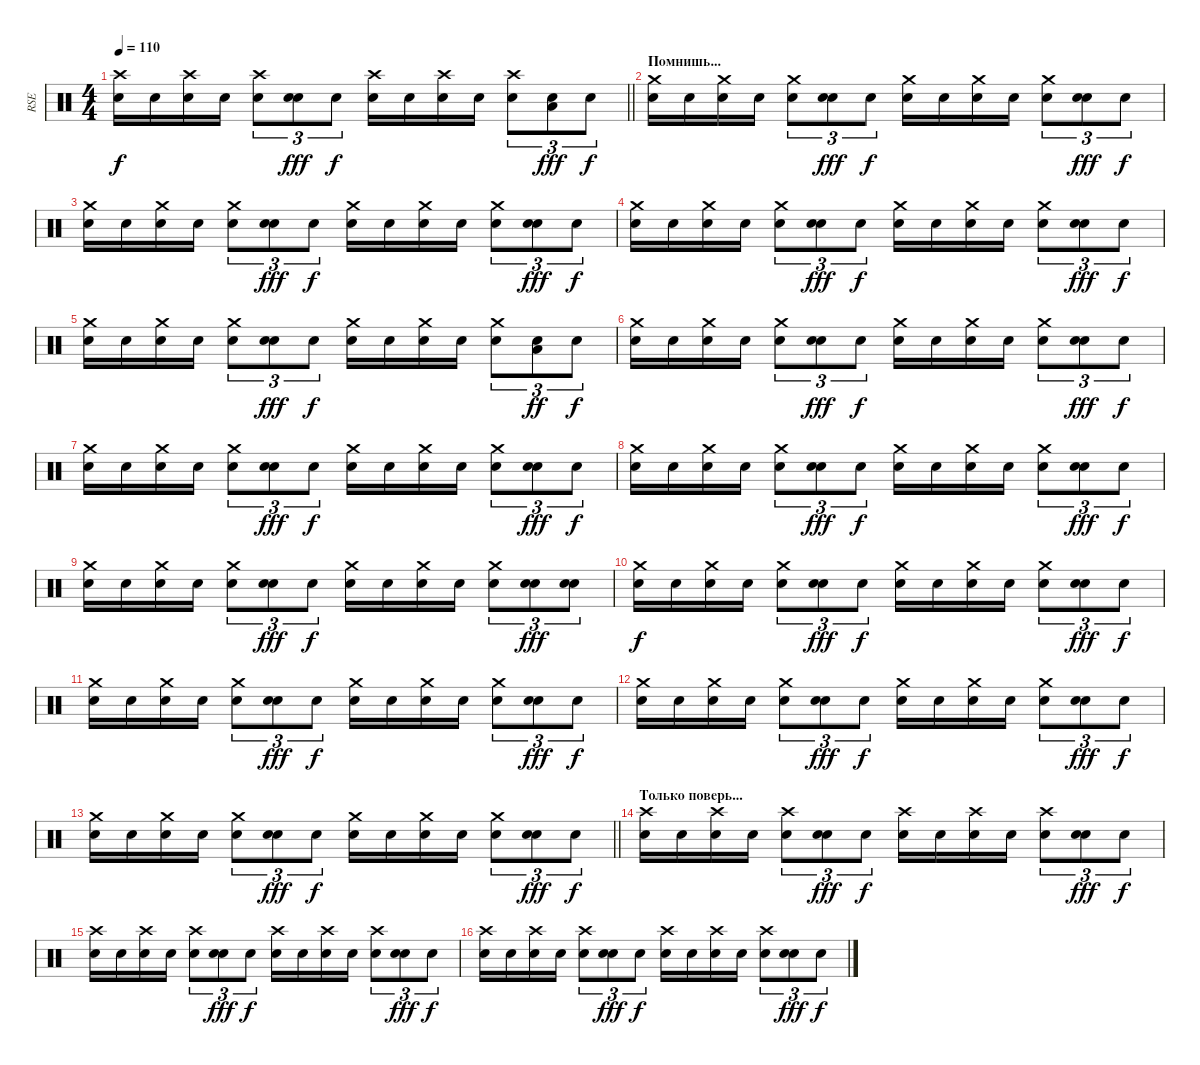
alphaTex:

\track ("RSE" "RSE") {instrument percussion}
\staff
\articulation defaults
\ts (4 4)
\tempo 110
\clef neutral
\barLineRight lightlight
\ks c
("Crash high (hit)" "Snare (hit)").16{dy f} "Snare (hit)".16 ("Crash high (hit)" "Snare (hit)").16 "Snare (hit)".16 ("Crash high (hit)" "Snare (hit)").8{tu (3 2)} ("Electric Snare (hit)" "Snare (hit)").8{tu (3 2) dy fff} "Snare (hit)".8{tu (3 2) dy f} ("Crash high (hit)" "Snare (hit)").16 "Snare (hit)".16 ("Crash high (hit)" "Snare (hit)").16 "Snare (hit)".16 ("Crash high (hit)" "Snare (hit)").8{tu (3 2)} ("Low Floor Tom (hit)" "Snare (hit)").8{tu (3 2) dy fff} "Snare (hit)".8{tu (3 2) dy f} |
\section ("" "Помнишь...")
("Crash medium (hit)" "Snare (hit)").16 "Snare (hit)".16 ("Crash medium (hit)" "Snare (hit)").16 "Snare (hit)".16 ("Crash medium (hit)" "Snare (hit)").8{tu (3 2)} ("Electric Snare (hit)" "Snare (hit)").8{tu (3 2) dy fff} "Snare (hit)".8{tu (3 2) dy f} ("Crash medium (hit)" "Snare (hit)").16 "Snare (hit)".16 ("Crash medium (hit)" "Snare (hit)").16 "Snare (hit)".16 ("Crash medium (hit)" "Snare (hit)").8{tu (3 2)} ("Electric Snare (hit)" "Snare (hit)").8{tu (3 2) dy fff} "Snare (hit)".8{tu (3 2) dy f} |
("Crash medium (hit)" "Snare (hit)").16 "Snare (hit)".16 ("Crash medium (hit)" "Snare (hit)").16 "Snare (hit)".16 ("Crash medium (hit)" "Snare (hit)").8{tu (3 2)} ("Electric Snare (hit)" "Snare (hit)").8{tu (3 2) dy fff} "Snare (hit)".8{tu (3 2) dy f} ("Crash medium (hit)" "Snare (hit)").16 "Snare (hit)".16 ("Crash medium (hit)" "Snare (hit)").16 "Snare (hit)".16 ("Crash medium (hit)" "Snare (hit)").8{tu (3 2)} ("Electric Snare (hit)" "Snare (hit)").8{tu (3 2) dy fff} "Snare (hit)".8{tu (3 2) dy f} |
("Crash medium (hit)" "Snare (hit)").16 "Snare (hit)".16 ("Crash medium (hit)" "Snare (hit)").16 "Snare (hit)".16 ("Crash medium (hit)" "Snare (hit)").8{tu (3 2)} ("Electric Snare (hit)" "Snare (hit)").8{tu (3 2) dy fff} "Snare (hit)".8{tu (3 2) dy f} ("Crash medium (hit)" "Snare (hit)").16 "Snare (hit)".16 ("Crash medium (hit)" "Snare (hit)").16 "Snare (hit)".16 ("Crash medium (hit)" "Snare (hit)").8{tu (3 2)} ("Electric Snare (hit)" "Snare (hit)").8{tu (3 2) dy fff} "Snare (hit)".8{tu (3 2) dy f} |
("Crash medium (hit)" "Snare (hit)").16 "Snare (hit)".16 ("Crash medium (hit)" "Snare (hit)").16 "Snare (hit)".16 ("Crash medium (hit)" "Snare (hit)").8{tu (3 2)} ("Electric Snare (hit)" "Snare (hit)").8{tu (3 2) dy fff} "Snare (hit)".8{tu (3 2) dy f} ("Crash medium (hit)" "Snare (hit)").16 "Snare (hit)".16 ("Crash medium (hit)" "Snare (hit)").16 "Snare (hit)".16 ("Crash medium (hit)" "Snare (hit)").8{tu (3 2)} ("Low Floor Tom (hit)" "Snare (hit)").8{tu (3 2) dy ff} "Snare (hit)".8{tu (3 2) dy f} |
("Crash medium (hit)" "Snare (hit)").16 "Snare (hit)".16 ("Crash medium (hit)" "Snare (hit)").16 "Snare (hit)".16 ("Crash medium (hit)" "Snare (hit)").8{tu (3 2)} ("Electric Snare (hit)" "Snare (hit)").8{tu (3 2) dy fff} "Snare (hit)".8{tu (3 2) dy f} ("Crash medium (hit)" "Snare (hit)").16 "Snare (hit)".16 ("Crash medium (hit)" "Snare (hit)").16 "Snare (hit)".16 ("Crash medium (hit)" "Snare (hit)").8{tu (3 2)} ("Electric Snare (hit)" "Snare (hit)").8{tu (3 2) dy fff} "Snare (hit)".8{tu (3 2) dy f} |
("Crash medium (hit)" "Snare (hit)").16 "Snare (hit)".16 ("Crash medium (hit)" "Snare (hit)").16 "Snare (hit)".16 ("Crash medium (hit)" "Snare (hit)").8{tu (3 2)} ("Electric Snare (hit)" "Snare (hit)").8{tu (3 2) dy fff} "Snare (hit)".8{tu (3 2) dy f} ("Crash medium (hit)" "Snare (hit)").16 "Snare (hit)".16 ("Crash medium (hit)" "Snare (hit)").16 "Snare (hit)".16 ("Crash medium (hit)" "Snare (hit)").8{tu (3 2)} ("Electric Snare (hit)" "Snare (hit)").8{tu (3 2) dy fff} "Snare (hit)".8{tu (3 2) dy f} |
("Crash medium (hit)" "Snare (hit)").16 "Snare (hit)".16 ("Crash medium (hit)" "Snare (hit)").16 "Snare (hit)".16 ("Crash medium (hit)" "Snare (hit)").8{tu (3 2)} ("Electric Snare (hit)" "Snare (hit)").8{tu (3 2) dy fff} "Snare (hit)".8{tu (3 2) dy f} ("Crash medium (hit)" "Snare (hit)").16 "Snare (hit)".16 ("Crash medium (hit)" "Snare (hit)").16 "Snare (hit)".16 ("Crash medium (hit)" "Snare (hit)").8{tu (3 2)} ("Electric Snare (hit)" "Snare (hit)").8{tu (3 2) dy fff} "Snare (hit)".8{tu (3 2) dy f} |
("Crash medium (hit)" "Snare (hit)").16 "Snare (hit)".16 ("Crash medium (hit)" "Snare (hit)").16 "Snare (hit)".16 ("Crash medium (hit)" "Snare (hit)").8{tu (3 2)} ("Electric Snare (hit)" "Snare (hit)").8{tu (3 2) dy fff} "Snare (hit)".8{tu (3 2) dy f} ("Crash medium (hit)" "Snare (hit)").16 "Snare (hit)".16 ("Crash medium (hit)" "Snare (hit)").16 "Snare (hit)".16 ("Crash medium (hit)" "Snare (hit)").8{tu (3 2)} ("Electric Snare (hit)" "Snare (hit)").8{tu (3 2) dy fff} ("Electric Snare (hit)" "Snare (hit)").8{tu (3 2)} |
("Crash medium (hit)" "Snare (hit)").16{dy f} "Snare (hit)".16 ("Crash medium (hit)" "Snare (hit)").16 "Snare (hit)".16 ("Crash medium (hit)" "Snare (hit)").8{tu (3 2)} ("Electric Snare (hit)" "Snare (hit)").8{tu (3 2) dy fff} "Snare (hit)".8{tu (3 2) dy f} ("Crash medium (hit)" "Snare (hit)").16 "Snare (hit)".16 ("Crash medium (hit)" "Snare (hit)").16 "Snare (hit)".16 ("Crash medium (hit)" "Snare (hit)").8{tu (3 2)} ("Electric Snare (hit)" "Snare (hit)").8{tu (3 2) dy fff} "Snare (hit)".8{tu (3 2) dy f} |
("Crash medium (hit)" "Snare (hit)").16 "Snare (hit)".16 ("Crash medium (hit)" "Snare (hit)").16 "Snare (hit)".16 ("Crash medium (hit)" "Snare (hit)").8{tu (3 2)} ("Electric Snare (hit)" "Snare (hit)").8{tu (3 2) dy fff} "Snare (hit)".8{tu (3 2) dy f} ("Crash medium (hit)" "Snare (hit)").16 "Snare (hit)".16 ("Crash medium (hit)" "Snare (hit)").16 "Snare (hit)".16 ("Crash medium (hit)" "Snare (hit)").8{tu (3 2)} ("Electric Snare (hit)" "Snare (hit)").8{tu (3 2) dy fff} "Snare (hit)".8{tu (3 2) dy f} |
("Crash medium (hit)" "Snare (hit)").16 "Snare (hit)".16 ("Crash medium (hit)" "Snare (hit)").16 "Snare (hit)".16 ("Crash medium (hit)" "Snare (hit)").8{tu (3 2)} ("Electric Snare (hit)" "Snare (hit)").8{tu (3 2) dy fff} "Snare (hit)".8{tu (3 2) dy f} ("Crash medium (hit)" "Snare (hit)").16 "Snare (hit)".16 ("Crash medium (hit)" "Snare (hit)").16 "Snare (hit)".16 ("Crash medium (hit)" "Snare (hit)").8{tu (3 2)} ("Electric Snare (hit)" "Snare (hit)").8{tu (3 2) dy fff} "Snare (hit)".8{tu (3 2) dy f} |
\barLineRight lightlight
("Crash medium (hit)" "Snare (hit)").16 "Snare (hit)".16 ("Crash medium (hit)" "Snare (hit)").16 "Snare (hit)".16 ("Crash medium (hit)" "Snare (hit)").8{tu (3 2)} ("Electric Snare (hit)" "Snare (hit)").8{tu (3 2) dy fff} "Snare (hit)".8{tu (3 2) dy f} ("Crash medium (hit)" "Snare (hit)").16 "Snare (hit)".16 ("Crash medium (hit)" "Snare (hit)").16 "Snare (hit)".16 ("Crash medium (hit)" "Snare (hit)").8{tu (3 2)} ("Electric Snare (hit)" "Snare (hit)").8{tu (3 2) dy fff} "Snare (hit)".8{tu (3 2) dy f} |
\section ("" "Только поверь...")
("Crash high (hit)" "Snare (hit)").16 "Snare (hit)".16 ("Crash high (hit)" "Snare (hit)").16 "Snare (hit)".16 ("Crash high (hit)" "Snare (hit)").8{tu (3 2)} ("Electric Snare (hit)" "Snare (hit)").8{tu (3 2) dy fff} "Snare (hit)".8{tu (3 2) dy f} ("Crash high (hit)" "Snare (hit)").16 "Snare (hit)".16 ("Crash high (hit)" "Snare (hit)").16 "Snare (hit)".16 ("Crash high (hit)" "Snare (hit)").8{tu (3 2)} ("Electric Snare (hit)" "Snare (hit)").8{tu (3 2) dy fff} "Snare (hit)".8{tu (3 2) dy f} |
("Crash high (hit)" "Snare (hit)").16 "Snare (hit)".16 ("Crash high (hit)" "Snare (hit)").16 "Snare (hit)".16 ("Crash high (hit)" "Snare (hit)").8{tu (3 2)} ("Electric Snare (hit)" "Snare (hit)").8{tu (3 2) dy fff} "Snare (hit)".8{tu (3 2) dy f} ("Crash high (hit)" "Snare (hit)").16 "Snare (hit)".16 ("Crash high (hit)" "Snare (hit)").16 "Snare (hit)".16 ("Crash high (hit)" "Snare (hit)").8{tu (3 2)} ("Electric Snare (hit)" "Snare (hit)").8{tu (3 2) dy fff} "Snare (hit)".8{tu (3 2) dy f} |
("Crash high (hit)" "Snare (hit)").16 "Snare (hit)".16 ("Crash high (hit)" "Snare (hit)").16 "Snare (hit)".16 ("Crash high (hit)" "Snare (hit)").8{tu (3 2)} ("Electric Snare (hit)" "Snare (hit)").8{tu (3 2) dy fff} "Snare (hit)".8{tu (3 2) dy f} ("Crash high (hit)" "Snare (hit)").16 "Snare (hit)".16 ("Crash high (hit)" "Snare (hit)").16 "Snare (hit)".16 ("Crash high (hit)" "Snare (hit)").8{tu (3 2)} ("Electric Snare (hit)" "Snare (hit)").8{tu (3 2) dy fff} "Snare (hit)".8{tu (3 2) dy f}
